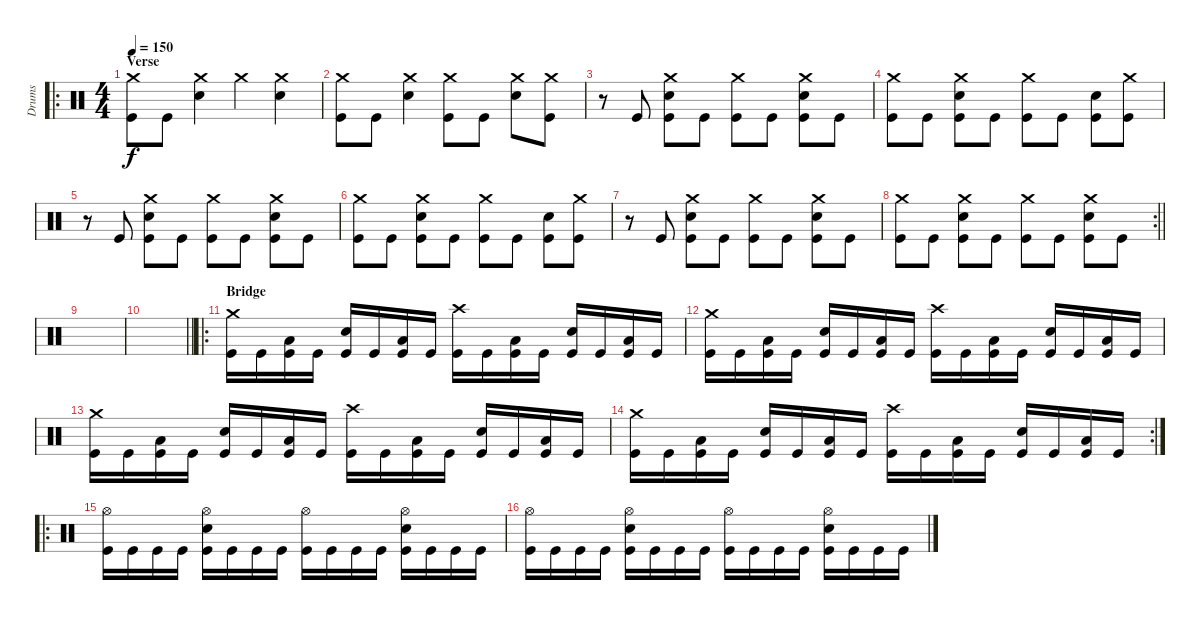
\track ("Drums" "Drums") {instrument percussion}
\staff {score}
\articulation defaults
\ro
\ts (4 4)
\section ("" "Verse")
\tempo 150
\clef neutral
\ks c
("Crash medium (hit)" "Kick (hit)").8{dy f} "Kick (hit)".8 ("Crash medium (hit)" "Snare (hit) 2").4 "Crash medium (hit)".4 ("Crash medium (hit)" "Snare (hit) 2").4 |
("Crash medium (hit)" "Kick (hit)").8 "Kick (hit)".8 ("Crash medium (hit)" "Snare (hit) 2").4 ("Crash medium (hit)" "Kick (hit)").8 "Kick (hit)".8 ("Crash medium (hit)" "Snare (hit) 2").8 ("Crash medium (hit)" "Kick (hit)").8 |
r.8 "Kick (hit)".8 ("Crash medium (hit)" "Snare (hit) 2" "Kick (hit)").8 "Kick (hit)".8 ("Crash medium (hit)" "Kick (hit)").8 "Kick (hit)".8 ("Crash medium (hit)" "Snare (hit) 2" "Kick (hit)").8 "Kick (hit)".8 |
("Crash medium (hit)" "Kick (hit)").8 "Kick (hit)".8 ("Crash medium (hit)" "Snare (hit) 2" "Kick (hit)").8 "Kick (hit)".8 ("Crash medium (hit)" "Kick (hit)").8 "Kick (hit)".8 ("Snare (hit) 2" "Kick (hit)").8 ("Crash medium (hit)" "Kick (hit)").8 |
r.8 "Kick (hit)".8 ("Crash medium (hit)" "Snare (hit) 2" "Kick (hit)").8 "Kick (hit)".8 ("Crash medium (hit)" "Kick (hit)").8 "Kick (hit)".8 ("Crash medium (hit)" "Snare (hit) 2" "Kick (hit)").8 "Kick (hit)".8 |
("Crash medium (hit)" "Kick (hit)").8 "Kick (hit)".8 ("Crash medium (hit)" "Snare (hit) 2" "Kick (hit)").8 "Kick (hit)".8 ("Crash medium (hit)" "Kick (hit)").8 "Kick (hit)".8 ("Snare (hit) 2" "Kick (hit)").8 ("Crash medium (hit)" "Kick (hit)").8 |
r.8 "Kick (hit)".8 ("Crash medium (hit)" "Snare (hit) 2" "Kick (hit)").8 "Kick (hit)".8 ("Crash medium (hit)" "Kick (hit)").8 "Kick (hit)".8 ("Crash medium (hit)" "Snare (hit) 2" "Kick (hit)").8 "Kick (hit)".8 |
\rc 2
\barLineRight lightlight
("Crash medium (hit)" "Kick (hit)").8 "Kick (hit)".8 ("Crash medium (hit)" "Snare (hit) 2" "Kick (hit)").8 "Kick (hit)".8 ("Crash medium (hit)" "Kick (hit)").8 "Kick (hit)".8 ("Crash medium (hit)" "Snare (hit) 2" "Kick (hit)").8 "Kick (hit)".8 |
|
\barLineRight lightlight
|
\ro
\section ("" "Bridge")
("Crash medium (hit)" "Kick (hit)").16 "Kick (hit)".16 ("Low Floor Tom (hit)" "Kick (hit)").16 "Kick (hit)".16 ("Snare (hit) 2" "Kick (hit)").16 "Kick (hit)".16 ("Low Floor Tom (hit)" "Kick (hit)").16 "Kick (hit)".16 ("Crash high (hit)" "Kick (hit)").16 "Kick (hit)".16 ("Low Floor Tom (hit)" "Kick (hit)").16 "Kick (hit)".16 ("Snare (hit) 2" "Kick (hit)").16 "Kick (hit)".16 ("Low Floor Tom (hit)" "Kick (hit)").16 "Kick (hit)".16 |
("Crash medium (hit)" "Kick (hit)").16 "Kick (hit)".16 ("Low Floor Tom (hit)" "Kick (hit)").16 "Kick (hit)".16 ("Snare (hit) 2" "Kick (hit)").16 "Kick (hit)".16 ("Low Floor Tom (hit)" "Kick (hit)").16 "Kick (hit)".16 ("Crash high (hit)" "Kick (hit)").16 "Kick (hit)".16 ("Low Floor Tom (hit)" "Kick (hit)").16 "Kick (hit)".16 ("Snare (hit) 2" "Kick (hit)").16 "Kick (hit)".16 ("Low Floor Tom (hit)" "Kick (hit)").16 "Kick (hit)".16 |
("Crash medium (hit)" "Kick (hit)").16 "Kick (hit)".16 ("Low Floor Tom (hit)" "Kick (hit)").16 "Kick (hit)".16 ("Snare (hit) 2" "Kick (hit)").16 "Kick (hit)".16 ("Low Floor Tom (hit)" "Kick (hit)").16 "Kick (hit)".16 ("Crash high (hit)" "Kick (hit)").16 "Kick (hit)".16 ("Low Floor Tom (hit)" "Kick (hit)").16 "Kick (hit)".16 ("Snare (hit) 2" "Kick (hit)").16 "Kick (hit)".16 ("Low Floor Tom (hit)" "Kick (hit)").16 "Kick (hit)".16 |
\rc 2
("Crash medium (hit)" "Kick (hit)").16 "Kick (hit)".16 ("Low Floor Tom (hit)" "Kick (hit)").16 "Kick (hit)".16 ("Snare (hit) 2" "Kick (hit)").16 "Kick (hit)".16 ("Low Floor Tom (hit)" "Kick (hit)").16 "Kick (hit)".16 ("Crash high (hit)" "Kick (hit)").16 "Kick (hit)".16 ("Low Floor Tom (hit)" "Kick (hit)").16 "Kick (hit)".16 ("Snare (hit) 2" "Kick (hit)").16 "Kick (hit)".16 ("Low Floor Tom (hit)" "Kick (hit)").16 "Kick (hit)".16 |
\ro
("Hi-Hat (open)" "Kick (hit)").16 "Kick (hit)".16 "Kick (hit)".16 "Kick (hit)".16 ("Hi-Hat (open)" "Snare (hit) 2" "Kick (hit)").16 "Kick (hit)".16 "Kick (hit)".16 "Kick (hit)".16 ("Hi-Hat (open)" "Kick (hit)").16 "Kick (hit)".16 "Kick (hit)".16 "Kick (hit)".16 ("Hi-Hat (open)" "Snare (hit) 2" "Kick (hit)").16 "Kick (hit)".16 "Kick (hit)".16 "Kick (hit)".16 |
("Hi-Hat (open)" "Kick (hit)").16 "Kick (hit)".16 "Kick (hit)".16 "Kick (hit)".16 ("Hi-Hat (open)" "Snare (hit) 2" "Kick (hit)").16 "Kick (hit)".16 "Kick (hit)".16 "Kick (hit)".16 ("Hi-Hat (open)" "Kick (hit)").16 "Kick (hit)".16 "Kick (hit)".16 "Kick (hit)".16 ("Hi-Hat (open)" "Snare (hit) 2" "Kick (hit)").16 "Kick (hit)".16 "Kick (hit)".16 "Kick (hit)".16
